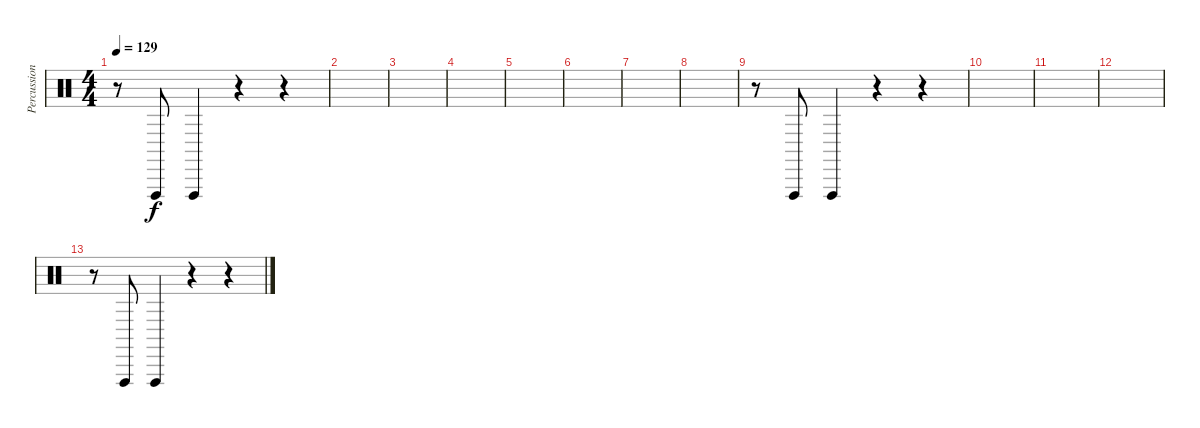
\track ("Percussions" "Percussion") {instrument percussion}
\staff {score}
\articulation defaults
\ts (4 4)
\tempo 129
\clef neutral
\ks c
r.8{dy f} "Vibraslap (hit)".8 "Vibraslap (hit)".4 r.4 r.4 |
|
|
|
|
|
|
|
r.8 "Vibraslap (hit)".8 "Vibraslap (hit)".4 r.4 r.4 |
|
|
|
r.8 "Vibraslap (hit)".8 "Vibraslap (hit)".4 r.4 r.4
